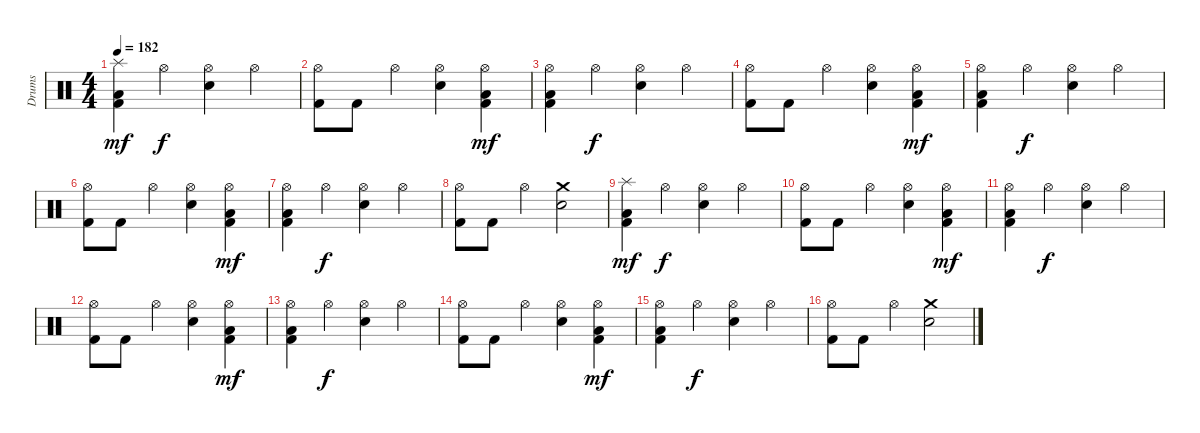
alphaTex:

\track ("Drums" "Drums") {instrument percussion}
\staff {score}
\articulation defaults
\ts (4 4)
\tempo 182
\clef neutral
\ks c
("Splash (hit)" "Low Floor Tom (hit)" "Kick (hit) 2").4{dy mf} "Hi-Hat (open)".4{dy f} ("Hi-Hat (open)" "Snare (hit) 2").4 "Hi-Hat (open)".4 |
("Hi-Hat (open)" "Kick (hit) 2").8 "Kick (hit) 2".8 "Hi-Hat (open)".4 ("Hi-Hat (open)" "Snare (hit) 2").4 ("Hi-Hat (open)" "Low Floor Tom (hit)" "Kick (hit) 2").4{dy mf} |
("Hi-Hat (open)" "Low Floor Tom (hit)" "Kick (hit) 2").4 "Hi-Hat (open)".4{dy f} ("Hi-Hat (open)" "Snare (hit) 2").4 "Hi-Hat (open)".4 |
("Hi-Hat (open)" "Kick (hit) 2").8 "Kick (hit) 2".8 "Hi-Hat (open)".4 ("Hi-Hat (open)" "Snare (hit) 2").4 ("Hi-Hat (open)" "Low Floor Tom (hit)" "Kick (hit) 2").4{dy mf} |
("Hi-Hat (open)" "Low Floor Tom (hit)" "Kick (hit) 2").4 "Hi-Hat (open)".4{dy f} ("Hi-Hat (open)" "Snare (hit) 2").4 "Hi-Hat (open)".4 |
("Hi-Hat (open)" "Kick (hit) 2").8 "Kick (hit) 2".8 "Hi-Hat (open)".4 ("Hi-Hat (open)" "Snare (hit) 2").4 ("Hi-Hat (open)" "Low Floor Tom (hit)" "Kick (hit) 2").4{dy mf} |
("Hi-Hat (open)" "Low Floor Tom (hit)" "Kick (hit) 2").4 "Hi-Hat (open)".4{dy f} ("Hi-Hat (open)" "Snare (hit) 2").4 "Hi-Hat (open)".4 |
("Hi-Hat (open)" "Kick (hit) 2").8 "Kick (hit) 2".8 "Hi-Hat (open)".4 ("Crash medium (hit)" "Snare (hit) 2").2 |
("Splash (hit)" "Low Floor Tom (hit)" "Kick (hit) 2").4{dy mf} "Hi-Hat (open)".4{dy f} ("Hi-Hat (open)" "Snare (hit) 2").4 "Hi-Hat (open)".4 |
("Hi-Hat (open)" "Kick (hit) 2").8 "Kick (hit) 2".8 "Hi-Hat (open)".4 ("Hi-Hat (open)" "Snare (hit) 2").4 ("Hi-Hat (open)" "Low Floor Tom (hit)" "Kick (hit) 2").4{dy mf} |
("Hi-Hat (open)" "Low Floor Tom (hit)" "Kick (hit) 2").4 "Hi-Hat (open)".4{dy f} ("Hi-Hat (open)" "Snare (hit) 2").4 "Hi-Hat (open)".4 |
("Hi-Hat (open)" "Kick (hit) 2").8 "Kick (hit) 2".8 "Hi-Hat (open)".4 ("Hi-Hat (open)" "Snare (hit) 2").4 ("Hi-Hat (open)" "Low Floor Tom (hit)" "Kick (hit) 2").4{dy mf} |
("Hi-Hat (open)" "Low Floor Tom (hit)" "Kick (hit) 2").4 "Hi-Hat (open)".4{dy f} ("Hi-Hat (open)" "Snare (hit) 2").4 "Hi-Hat (open)".4 |
("Hi-Hat (open)" "Kick (hit) 2").8 "Kick (hit) 2".8 "Hi-Hat (open)".4 ("Hi-Hat (open)" "Snare (hit) 2").4 ("Hi-Hat (open)" "Low Floor Tom (hit)" "Kick (hit) 2").4{dy mf} |
("Hi-Hat (open)" "Low Floor Tom (hit)" "Kick (hit) 2").4 "Hi-Hat (open)".4{dy f} ("Hi-Hat (open)" "Snare (hit) 2").4 "Hi-Hat (open)".4 |
("Hi-Hat (open)" "Kick (hit) 2").8 "Kick (hit) 2".8 "Hi-Hat (open)".4 ("Crash medium (hit)" "Snare (hit) 2").2
